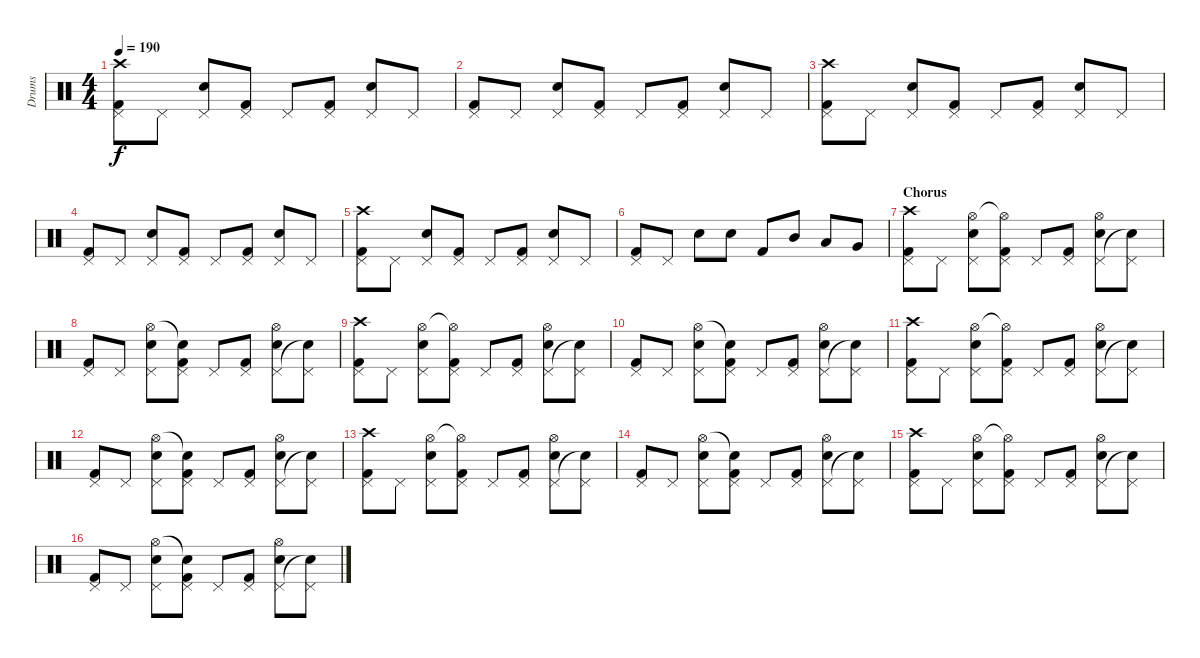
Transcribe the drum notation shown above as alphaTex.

\track ("Drums" "Drums") {instrument percussion}
\staff {score}
\articulation defaults
\ts (4 4)
\tempo 190
\clef neutral
\ks c
("Kick (hit) 2" "Pedal Hi-Hat (hit)" "Crash high (hit)").8{dy f} "Pedal Hi-Hat (hit)".8 ("Snare (hit) 2" "Pedal Hi-Hat (hit)").8 ("Kick (hit) 2" "Pedal Hi-Hat (hit)").8 "Pedal Hi-Hat (hit)".8 ("Kick (hit) 2" "Pedal Hi-Hat (hit)").8 ("Snare (hit) 2" "Pedal Hi-Hat (hit)").8 "Pedal Hi-Hat (hit)".8 |
("Kick (hit) 2" "Pedal Hi-Hat (hit)").8 "Pedal Hi-Hat (hit)".8 ("Snare (hit) 2" "Pedal Hi-Hat (hit)").8 ("Kick (hit) 2" "Pedal Hi-Hat (hit)").8 "Pedal Hi-Hat (hit)".8 ("Kick (hit) 2" "Pedal Hi-Hat (hit)").8 ("Snare (hit) 2" "Pedal Hi-Hat (hit)").8 "Pedal Hi-Hat (hit)".8 |
("Kick (hit) 2" "Pedal Hi-Hat (hit)" "Crash high (hit)").8 "Pedal Hi-Hat (hit)".8 ("Snare (hit) 2" "Pedal Hi-Hat (hit)").8 ("Kick (hit) 2" "Pedal Hi-Hat (hit)").8 "Pedal Hi-Hat (hit)".8 ("Kick (hit) 2" "Pedal Hi-Hat (hit)").8 ("Snare (hit) 2" "Pedal Hi-Hat (hit)").8 "Pedal Hi-Hat (hit)".8 |
("Kick (hit) 2" "Pedal Hi-Hat (hit)").8 "Pedal Hi-Hat (hit)".8 ("Snare (hit) 2" "Pedal Hi-Hat (hit)").8 ("Kick (hit) 2" "Pedal Hi-Hat (hit)").8 "Pedal Hi-Hat (hit)".8 ("Kick (hit) 2" "Pedal Hi-Hat (hit)").8 ("Snare (hit) 2" "Pedal Hi-Hat (hit)").8 "Pedal Hi-Hat (hit)".8 |
("Kick (hit) 2" "Pedal Hi-Hat (hit)" "Crash high (hit)").8 "Pedal Hi-Hat (hit)".8 ("Snare (hit) 2" "Pedal Hi-Hat (hit)").8 ("Kick (hit) 2" "Pedal Hi-Hat (hit)").8 "Pedal Hi-Hat (hit)".8 ("Kick (hit) 2" "Pedal Hi-Hat (hit)").8 ("Snare (hit) 2" "Pedal Hi-Hat (hit)").8 "Pedal Hi-Hat (hit)".8 |
("Kick (hit) 2" "Pedal Hi-Hat (hit)").8 "Pedal Hi-Hat (hit)".8 "Snare (hit) 2".8 "Snare (hit) 2".8 "Kick (hit) 2".8 "Mid Tom (hit)".8 "Low Tom (hit)".8 "Very Low Tom (hit)".8 |
\section ("" "Chorus")
("Kick (hit) 2" "Pedal Hi-Hat (hit)" "Crash high (hit)").8 "Pedal Hi-Hat (hit)".8 ("Snare (hit) 2" "Pedal Hi-Hat (hit)" "Hi-Hat (open)").8 ("Kick (hit) 2" "Pedal Hi-Hat (hit)" "Hi-Hat (open)"{t}).8 "Pedal Hi-Hat (hit)".8 ("Kick (hit) 2" "Pedal Hi-Hat (hit)").8 ("Snare (hit) 2" "Pedal Hi-Hat (hit)" "Hi-Hat (open)").8 ("Pedal Hi-Hat (hit)" "Snare (hit)"{t}).8 |
("Kick (hit) 2" "Pedal Hi-Hat (hit)").8 "Pedal Hi-Hat (hit)".8 ("Snare (hit) 2" "Pedal Hi-Hat (hit)" "Hi-Hat (open)").8 ("Kick (hit) 2" "Pedal Hi-Hat (hit)" "Snare (hit)"{t}).8 "Pedal Hi-Hat (hit)".8 ("Kick (hit) 2" "Pedal Hi-Hat (hit)").8 ("Snare (hit) 2" "Pedal Hi-Hat (hit)" "Hi-Hat (open)").8 ("Pedal Hi-Hat (hit)" "Snare (hit)"{t}).8 |
("Kick (hit) 2" "Pedal Hi-Hat (hit)" "Crash high (hit)").8 "Pedal Hi-Hat (hit)".8 ("Snare (hit) 2" "Pedal Hi-Hat (hit)" "Hi-Hat (open)").8 ("Kick (hit) 2" "Pedal Hi-Hat (hit)" "Hi-Hat (open)"{t}).8 "Pedal Hi-Hat (hit)".8 ("Kick (hit) 2" "Pedal Hi-Hat (hit)").8 ("Snare (hit) 2" "Pedal Hi-Hat (hit)" "Hi-Hat (open)").8 ("Pedal Hi-Hat (hit)" "Snare (hit)"{t}).8 |
("Kick (hit) 2" "Pedal Hi-Hat (hit)").8 "Pedal Hi-Hat (hit)".8 ("Snare (hit) 2" "Pedal Hi-Hat (hit)" "Hi-Hat (open)").8 ("Kick (hit) 2" "Pedal Hi-Hat (hit)" "Snare (hit)"{t}).8 "Pedal Hi-Hat (hit)".8 ("Kick (hit) 2" "Pedal Hi-Hat (hit)").8 ("Snare (hit) 2" "Pedal Hi-Hat (hit)" "Hi-Hat (open)").8 ("Pedal Hi-Hat (hit)" "Snare (hit)"{t}).8 |
("Kick (hit) 2" "Pedal Hi-Hat (hit)" "Crash high (hit)").8 "Pedal Hi-Hat (hit)".8 ("Snare (hit) 2" "Pedal Hi-Hat (hit)" "Hi-Hat (open)").8 ("Kick (hit) 2" "Pedal Hi-Hat (hit)" "Hi-Hat (open)"{t}).8 "Pedal Hi-Hat (hit)".8 ("Kick (hit) 2" "Pedal Hi-Hat (hit)").8 ("Snare (hit) 2" "Pedal Hi-Hat (hit)" "Hi-Hat (open)").8 ("Pedal Hi-Hat (hit)" "Snare (hit)"{t}).8 |
("Kick (hit) 2" "Pedal Hi-Hat (hit)").8 "Pedal Hi-Hat (hit)".8 ("Snare (hit) 2" "Pedal Hi-Hat (hit)" "Hi-Hat (open)").8 ("Kick (hit) 2" "Pedal Hi-Hat (hit)" "Snare (hit)"{t}).8 "Pedal Hi-Hat (hit)".8 ("Kick (hit) 2" "Pedal Hi-Hat (hit)").8 ("Snare (hit) 2" "Pedal Hi-Hat (hit)" "Hi-Hat (open)").8 ("Pedal Hi-Hat (hit)" "Snare (hit)"{t}).8 |
("Kick (hit) 2" "Pedal Hi-Hat (hit)" "Crash high (hit)").8 "Pedal Hi-Hat (hit)".8 ("Snare (hit) 2" "Pedal Hi-Hat (hit)" "Hi-Hat (open)").8 ("Kick (hit) 2" "Pedal Hi-Hat (hit)" "Hi-Hat (open)"{t}).8 "Pedal Hi-Hat (hit)".8 ("Kick (hit) 2" "Pedal Hi-Hat (hit)").8 ("Snare (hit) 2" "Pedal Hi-Hat (hit)" "Hi-Hat (open)").8 ("Pedal Hi-Hat (hit)" "Snare (hit)"{t}).8 |
("Kick (hit) 2" "Pedal Hi-Hat (hit)").8 "Pedal Hi-Hat (hit)".8 ("Snare (hit) 2" "Pedal Hi-Hat (hit)" "Hi-Hat (open)").8 ("Kick (hit) 2" "Pedal Hi-Hat (hit)" "Snare (hit)"{t}).8 "Pedal Hi-Hat (hit)".8 ("Kick (hit) 2" "Pedal Hi-Hat (hit)").8 ("Snare (hit) 2" "Pedal Hi-Hat (hit)" "Hi-Hat (open)").8 ("Pedal Hi-Hat (hit)" "Snare (hit)"{t}).8 |
("Kick (hit) 2" "Pedal Hi-Hat (hit)" "Crash high (hit)").8 "Pedal Hi-Hat (hit)".8 ("Snare (hit) 2" "Pedal Hi-Hat (hit)" "Hi-Hat (open)").8 ("Kick (hit) 2" "Pedal Hi-Hat (hit)" "Hi-Hat (open)"{t}).8 "Pedal Hi-Hat (hit)".8 ("Kick (hit) 2" "Pedal Hi-Hat (hit)").8 ("Snare (hit) 2" "Pedal Hi-Hat (hit)" "Hi-Hat (open)").8 ("Pedal Hi-Hat (hit)" "Snare (hit)"{t}).8 |
("Kick (hit) 2" "Pedal Hi-Hat (hit)").8 "Pedal Hi-Hat (hit)".8 ("Snare (hit) 2" "Pedal Hi-Hat (hit)" "Hi-Hat (open)").8 ("Kick (hit) 2" "Pedal Hi-Hat (hit)" "Snare (hit)"{t}).8 "Pedal Hi-Hat (hit)".8 ("Kick (hit) 2" "Pedal Hi-Hat (hit)").8 ("Snare (hit) 2" "Pedal Hi-Hat (hit)" "Hi-Hat (open)").8 ("Pedal Hi-Hat (hit)" "Snare (hit)"{t}).8
